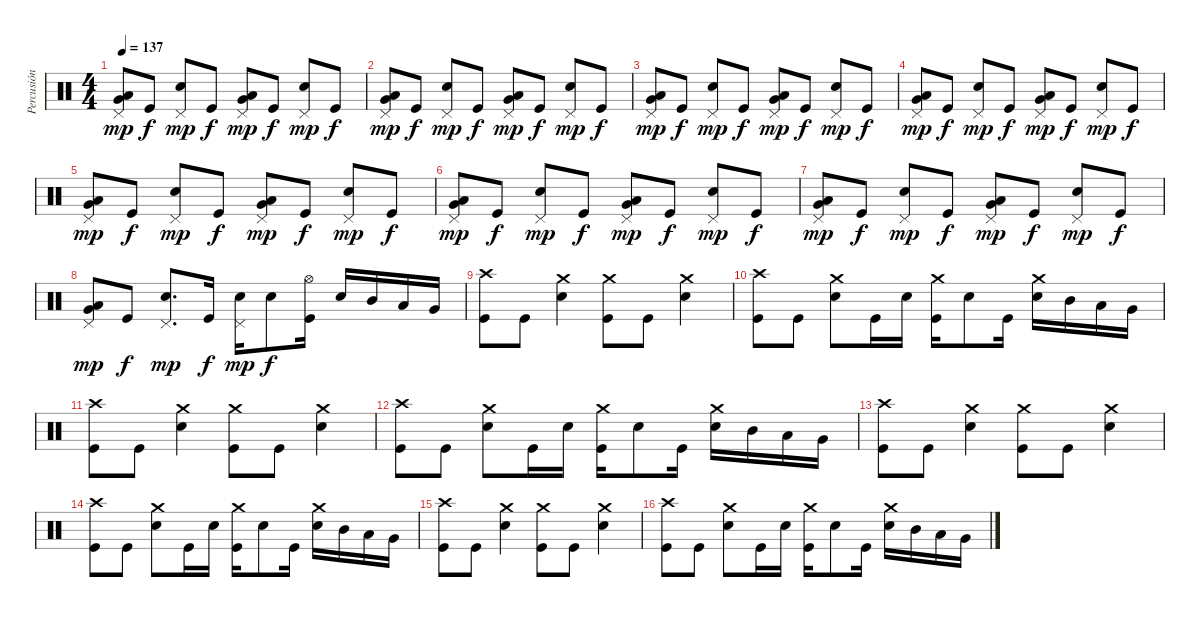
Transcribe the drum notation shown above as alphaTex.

\track ("Percusión" "Percusión") {instrument percussion}
\staff {score}
\articulation defaults
\ts (4 4)
\tempo 137
\clef neutral
\ks c
("Pedal Hi-Hat (hit)" "Low Tom (hit)" "Very Low Tom (hit)").8{dy mp} "Kick (hit)".8{dy f} ("Pedal Hi-Hat (hit)" "Snare (hit) 2").8{dy mp} "Kick (hit)".8{dy f} ("Pedal Hi-Hat (hit)" "Low Tom (hit)" "Very Low Tom (hit)").8{dy mp} "Kick (hit)".8{dy f} ("Pedal Hi-Hat (hit)" "Snare (hit) 2").8{dy mp} "Kick (hit)".8{dy f} |
("Pedal Hi-Hat (hit)" "Low Tom (hit)" "Very Low Tom (hit)").8{dy mp} "Kick (hit)".8{dy f} ("Pedal Hi-Hat (hit)" "Snare (hit) 2").8{dy mp} "Kick (hit)".8{dy f} ("Pedal Hi-Hat (hit)" "Low Tom (hit)" "Very Low Tom (hit)").8{dy mp} "Kick (hit)".8{dy f} ("Pedal Hi-Hat (hit)" "Snare (hit) 2").8{dy mp} "Kick (hit)".8{dy f} |
("Pedal Hi-Hat (hit)" "Low Tom (hit)" "Very Low Tom (hit)").8{dy mp} "Kick (hit)".8{dy f} ("Pedal Hi-Hat (hit)" "Snare (hit) 2").8{dy mp} "Kick (hit)".8{dy f} ("Pedal Hi-Hat (hit)" "Low Tom (hit)" "Very Low Tom (hit)").8{dy mp} "Kick (hit)".8{dy f} ("Pedal Hi-Hat (hit)" "Snare (hit) 2").8{dy mp} "Kick (hit)".8{dy f} |
("Pedal Hi-Hat (hit)" "Low Tom (hit)" "Very Low Tom (hit)").8{dy mp} "Kick (hit)".8{dy f} ("Pedal Hi-Hat (hit)" "Snare (hit) 2").8{dy mp} "Kick (hit)".8{dy f} ("Pedal Hi-Hat (hit)" "Low Tom (hit)" "Very Low Tom (hit)").8{dy mp} "Kick (hit)".8{dy f} ("Pedal Hi-Hat (hit)" "Snare (hit) 2").8{dy mp} "Kick (hit)".8{dy f} |
("Pedal Hi-Hat (hit)" "Low Tom (hit)" "Very Low Tom (hit)").8{dy mp} "Kick (hit)".8{dy f} ("Pedal Hi-Hat (hit)" "Snare (hit) 2").8{dy mp} "Kick (hit)".8{dy f} ("Pedal Hi-Hat (hit)" "Low Tom (hit)" "Very Low Tom (hit)").8{dy mp} "Kick (hit)".8{dy f} ("Pedal Hi-Hat (hit)" "Snare (hit) 2").8{dy mp} "Kick (hit)".8{dy f} |
("Pedal Hi-Hat (hit)" "Low Tom (hit)" "Very Low Tom (hit)").8{dy mp} "Kick (hit)".8{dy f} ("Pedal Hi-Hat (hit)" "Snare (hit) 2").8{dy mp} "Kick (hit)".8{dy f} ("Pedal Hi-Hat (hit)" "Low Tom (hit)" "Very Low Tom (hit)").8{dy mp} "Kick (hit)".8{dy f} ("Pedal Hi-Hat (hit)" "Snare (hit) 2").8{dy mp} "Kick (hit)".8{dy f} |
("Pedal Hi-Hat (hit)" "Low Tom (hit)" "Very Low Tom (hit)").8{dy mp} "Kick (hit)".8{dy f} ("Pedal Hi-Hat (hit)" "Snare (hit) 2").8{dy mp} "Kick (hit)".8{dy f} ("Pedal Hi-Hat (hit)" "Low Tom (hit)" "Very Low Tom (hit)").8{dy mp} "Kick (hit)".8{dy f} ("Pedal Hi-Hat (hit)" "Snare (hit) 2").8{dy mp} "Kick (hit)".8{dy f} |
("Pedal Hi-Hat (hit)" "Low Tom (hit)" "Very Low Tom (hit)").8{dy mp} "Kick (hit)".8{dy f} ("Pedal Hi-Hat (hit)" "Snare (hit) 2").8{d dy mp} "Kick (hit)".16{dy f} ("Pedal Hi-Hat (hit)" "Snare (hit) 2").16{dy mp} "Snare (hit) 2".8{dy f} ("Hi-Hat (open)" "Kick (hit)").16 "Snare (hit) 2".16 "Mid Tom (hit)".16 "Low Tom (hit)".16 "Very Low Tom (hit)".16 |
("Crash high (hit)" "Kick (hit)").8 "Kick (hit)".8 ("Crash medium (hit)" "Snare (hit) 2").4 ("Crash medium (hit)" "Kick (hit)").8 "Kick (hit)".8 ("Crash medium (hit)" "Snare (hit) 2").4 |
("Crash high (hit)" "Kick (hit)").8 "Kick (hit)".8 ("Crash medium (hit)" "Snare (hit) 2").8 "Kick (hit)".16 "Snare (hit) 2".16 ("Crash medium (hit)" "Kick (hit)").16 "Snare (hit) 2".8 "Kick (hit)".16 ("Crash medium (hit)" "Snare (hit) 2").16 "Mid Tom (hit)".16 "Low Tom (hit)".16 "Very Low Tom (hit)".16 |
("Crash high (hit)" "Kick (hit)").8 "Kick (hit)".8 ("Crash medium (hit)" "Snare (hit) 2").4 ("Crash medium (hit)" "Kick (hit)").8 "Kick (hit)".8 ("Crash medium (hit)" "Snare (hit) 2").4 |
("Crash high (hit)" "Kick (hit)").8 "Kick (hit)".8 ("Crash medium (hit)" "Snare (hit) 2").8 "Kick (hit)".16 "Snare (hit) 2".16 ("Crash medium (hit)" "Kick (hit)").16 "Snare (hit) 2".8 "Kick (hit)".16 ("Crash medium (hit)" "Snare (hit) 2").16 "Mid Tom (hit)".16 "Low Tom (hit)".16 "Very Low Tom (hit)".16 |
("Crash high (hit)" "Kick (hit)").8 "Kick (hit)".8 ("Crash medium (hit)" "Snare (hit) 2").4 ("Crash medium (hit)" "Kick (hit)").8 "Kick (hit)".8 ("Crash medium (hit)" "Snare (hit) 2").4 |
("Crash high (hit)" "Kick (hit)").8 "Kick (hit)".8 ("Crash medium (hit)" "Snare (hit) 2").8 "Kick (hit)".16 "Snare (hit) 2".16 ("Crash medium (hit)" "Kick (hit)").16 "Snare (hit) 2".8 "Kick (hit)".16 ("Crash medium (hit)" "Snare (hit) 2").16 "Mid Tom (hit)".16 "Low Tom (hit)".16 "Very Low Tom (hit)".16 |
("Crash high (hit)" "Kick (hit)").8 "Kick (hit)".8 ("Crash medium (hit)" "Snare (hit) 2").4 ("Crash medium (hit)" "Kick (hit)").8 "Kick (hit)".8 ("Crash medium (hit)" "Snare (hit) 2").4 |
("Crash high (hit)" "Kick (hit)").8 "Kick (hit)".8 ("Crash medium (hit)" "Snare (hit) 2").8 "Kick (hit)".16 "Snare (hit) 2".16 ("Crash medium (hit)" "Kick (hit)").16 "Snare (hit) 2".8 "Kick (hit)".16 ("Crash medium (hit)" "Snare (hit) 2").16 "Mid Tom (hit)".16 "Low Tom (hit)".16 "Very Low Tom (hit)".16
